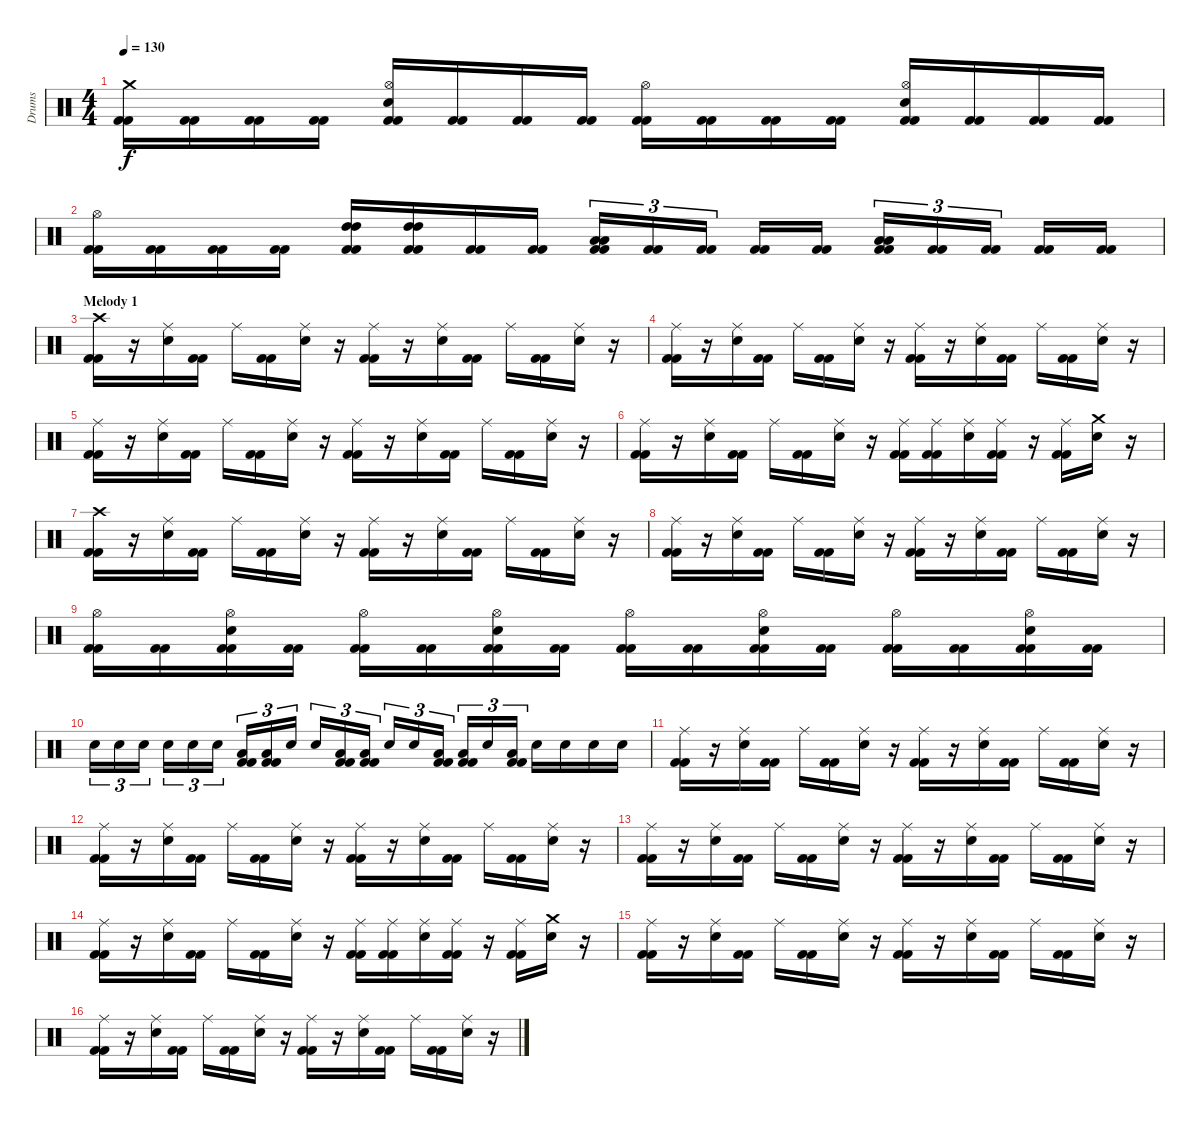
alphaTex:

\track ("Drums" "Drums") {instrument percussion}
\staff {score}
\articulation defaults
\ts (4 4)
\tempo 130
\clef neutral
\ks c
("Crash medium (hit)" "Kick (hit) 2" "Kick (hit) 2").16{dy f} ("Kick (hit) 2" "Kick (hit) 2").16 ("Kick (hit) 2" "Kick (hit) 2").16 ("Kick (hit) 2" "Kick (hit) 2").16 ("Hi-Hat (open)" "Electric Snare (hit)" "Kick (hit) 2" "Kick (hit) 2").16 ("Kick (hit) 2" "Kick (hit) 2").16 ("Kick (hit) 2" "Kick (hit) 2").16 ("Kick (hit) 2" "Kick (hit) 2").16 ("Hi-Hat (open)" "Kick (hit) 2" "Kick (hit) 2").16 ("Kick (hit) 2" "Kick (hit) 2").16 ("Kick (hit) 2" "Kick (hit) 2").16 ("Kick (hit) 2" "Kick (hit) 2").16 ("Hi-Hat (open)" "Electric Snare (hit)" "Kick (hit) 2" "Kick (hit) 2").16 ("Kick (hit) 2" "Kick (hit) 2").16 ("Kick (hit) 2" "Kick (hit) 2").16 ("Kick (hit) 2" "Kick (hit) 2").16 |
("Hi-Hat (open)" "Kick (hit) 2" "Kick (hit) 2").16 ("Kick (hit) 2" "Kick (hit) 2").16 ("Kick (hit) 2" "Kick (hit) 2").16 ("Kick (hit) 2" "Kick (hit) 2").16 ("High Tom (hit)" "High Tom (hit)" "Kick (hit) 2" "Kick (hit) 2").16 ("High Tom (hit)" "High Tom (hit)" "Kick (hit) 2" "Kick (hit) 2").16 ("Kick (hit) 2" "Kick (hit) 2").16 ("Kick (hit) 2" "Kick (hit) 2").16 ("Low Tom (hit)" "Low Tom (hit)" "Kick (hit) 2" "Kick (hit) 2").16{tu (3 2)} ("Kick (hit) 2" "Kick (hit) 2").16{tu (3 2)} ("Kick (hit) 2" "Kick (hit) 2").16{tu (3 2)} ("Kick (hit) 2" "Kick (hit) 2").16 ("Kick (hit) 2" "Kick (hit) 2").16 ("Low Floor Tom (hit)" "Low Floor Tom (hit)" "Kick (hit) 2" "Kick (hit) 2").16{tu (3 2)} ("Kick (hit) 2" "Kick (hit) 2").16{tu (3 2)} ("Kick (hit) 2" "Kick (hit) 2").16{tu (3 2)} ("Kick (hit) 2" "Kick (hit) 2").16 ("Kick (hit) 2" "Kick (hit) 2").16 |
\section ("" "Melody 1")
("Crash high (hit)" "Kick (hit) 2" "Kick (hit) 2").16 r.16 ("Ride (middle)" "Electric Snare (hit)").16 ("Kick (hit) 2" "Kick (hit) 2").16 "Ride (middle)".16 ("Kick (hit) 2" "Kick (hit) 2").16 ("Ride (middle)" "Electric Snare (hit)").16 r.16 ("Ride (middle)" "Kick (hit) 2" "Kick (hit) 2").16 r.16 ("Ride (middle)" "Electric Snare (hit)").16 ("Kick (hit) 2" "Kick (hit) 2").16 "Ride (middle)".16 ("Kick (hit) 2" "Kick (hit) 2").16 ("Ride (middle)" "Electric Snare (hit)").16 r.16 |
("Ride (middle)" "Kick (hit) 2" "Kick (hit) 2").16 r.16 ("Ride (middle)" "Electric Snare (hit)").16 ("Kick (hit) 2" "Kick (hit) 2").16 "Ride (middle)".16 ("Kick (hit) 2" "Kick (hit) 2").16 ("Ride (middle)" "Electric Snare (hit)").16 r.16 ("Ride (middle)" "Kick (hit) 2" "Kick (hit) 2").16 r.16 ("Ride (middle)" "Electric Snare (hit)").16 ("Kick (hit) 2" "Kick (hit) 2").16 "Ride (middle)".16 ("Kick (hit) 2" "Kick (hit) 2").16 ("Ride (middle)" "Electric Snare (hit)").16 r.16 |
("Ride (middle)" "Kick (hit) 2" "Kick (hit) 2").16 r.16 ("Ride (middle)" "Electric Snare (hit)").16 ("Kick (hit) 2" "Kick (hit) 2").16 "Ride (middle)".16 ("Kick (hit) 2" "Kick (hit) 2").16 ("Ride (middle)" "Electric Snare (hit)").16 r.16 ("Ride (middle)" "Kick (hit) 2" "Kick (hit) 2").16 r.16 ("Ride (middle)" "Electric Snare (hit)").16 ("Kick (hit) 2" "Kick (hit) 2").16 "Ride (middle)".16 ("Kick (hit) 2" "Kick (hit) 2").16 ("Ride (middle)" "Electric Snare (hit)").16 r.16 |
("Ride (middle)" "Kick (hit) 2" "Kick (hit) 2").16 r.16 ("Ride (middle)" "Electric Snare (hit)").16 ("Kick (hit) 2" "Kick (hit) 2").16 "Ride (middle)".16 ("Kick (hit) 2" "Kick (hit) 2").16 ("Ride (middle)" "Electric Snare (hit)").16 r.16 ("Ride (middle)" "Kick (hit) 2" "Kick (hit) 2").16 ("Ride (middle)" "Kick (hit) 2" "Kick (hit) 2").16 ("Ride (middle)" "Electric Snare (hit)").16 ("Ride (middle)" "Kick (hit) 2" "Kick (hit) 2").16 r.16 ("Ride (middle)" "Kick (hit) 2" "Kick (hit) 2").16 ("Crash medium (hit)" "Electric Snare (hit)").16 r.16 |
("Crash high (hit)" "Kick (hit) 2" "Kick (hit) 2").16 r.16 ("Ride (middle)" "Electric Snare (hit)").16 ("Kick (hit) 2" "Kick (hit) 2").16 "Ride (middle)".16 ("Kick (hit) 2" "Kick (hit) 2").16 ("Ride (middle)" "Electric Snare (hit)").16 r.16 ("Ride (middle)" "Kick (hit) 2" "Kick (hit) 2").16 r.16 ("Ride (middle)" "Electric Snare (hit)").16 ("Kick (hit) 2" "Kick (hit) 2").16 "Ride (middle)".16 ("Kick (hit) 2" "Kick (hit) 2").16 ("Ride (middle)" "Electric Snare (hit)").16 r.16 |
("Ride (middle)" "Kick (hit) 2" "Kick (hit) 2").16 r.16 ("Ride (middle)" "Electric Snare (hit)").16 ("Kick (hit) 2" "Kick (hit) 2").16 "Ride (middle)".16 ("Kick (hit) 2" "Kick (hit) 2").16 ("Ride (middle)" "Electric Snare (hit)").16 r.16 ("Ride (middle)" "Kick (hit) 2" "Kick (hit) 2").16 r.16 ("Ride (middle)" "Electric Snare (hit)").16 ("Kick (hit) 2" "Kick (hit) 2").16 "Ride (middle)".16 ("Kick (hit) 2" "Kick (hit) 2").16 ("Ride (middle)" "Electric Snare (hit)").16 r.16 |
("Hi-Hat (open)" "Kick (hit) 2" "Kick (hit) 2").16 ("Kick (hit) 2" "Kick (hit) 2").16 ("Hi-Hat (open)" "Electric Snare (hit)" "Kick (hit) 2" "Kick (hit) 2").16 ("Kick (hit) 2" "Kick (hit) 2").16 ("Hi-Hat (open)" "Kick (hit) 2" "Kick (hit) 2").16 ("Kick (hit) 2" "Kick (hit) 2").16 ("Hi-Hat (open)" "Electric Snare (hit)" "Kick (hit) 2" "Kick (hit) 2").16 ("Kick (hit) 2" "Kick (hit) 2").16 ("Hi-Hat (open)" "Kick (hit) 2" "Kick (hit) 2").16 ("Kick (hit) 2" "Kick (hit) 2").16 ("Hi-Hat (open)" "Electric Snare (hit)" "Kick (hit) 2" "Kick (hit) 2").16 ("Kick (hit) 2" "Kick (hit) 2").16 ("Hi-Hat (open)" "Kick (hit) 2" "Kick (hit) 2").16 ("Kick (hit) 2" "Kick (hit) 2").16 ("Hi-Hat (open)" "Electric Snare (hit)" "Kick (hit) 2" "Kick (hit) 2").16 ("Kick (hit) 2" "Kick (hit) 2").16 |
"Electric Snare (hit)".16{tu (3 2)} "Electric Snare (hit)".16{tu (3 2)} "Electric Snare (hit)".16{tu (3 2)} "Electric Snare (hit)".16{tu (3 2)} "Electric Snare (hit)".16{tu (3 2)} "Electric Snare (hit)".16{tu (3 2)} ("Low Tom (hit)" "Kick (hit) 2" "Kick (hit) 2").16{tu (3 2)} ("Low Tom (hit)" "Kick (hit) 2" "Kick (hit) 2").16{tu (3 2)} "Electric Snare (hit)".16{tu (3 2)} "Electric Snare (hit)".16{tu (3 2)} ("Low Tom (hit)" "Kick (hit) 2" "Kick (hit) 2").16{tu (3 2)} ("Low Tom (hit)" "Kick (hit) 2" "Kick (hit) 2").16{tu (3 2)} "Electric Snare (hit)".16{tu (3 2)} "Electric Snare (hit)".16{tu (3 2)} ("Low Tom (hit)" "Kick (hit) 2" "Kick (hit) 2").16{tu (3 2)} ("Low Tom (hit)" "Kick (hit) 2" "Kick (hit) 2").16{tu (3 2)} "Electric Snare (hit)".16{tu (3 2)} ("Low Tom (hit)" "Kick (hit) 2" "Kick (hit) 2").16{tu (3 2)} "Electric Snare (hit)".16 "Electric Snare (hit)".16 "Electric Snare (hit)".16 "Electric Snare (hit)".16 |
("Ride (middle)" "Kick (hit) 2" "Kick (hit) 2").16 r.16 ("Ride (middle)" "Electric Snare (hit)").16 ("Kick (hit) 2" "Kick (hit) 2").16 "Ride (middle)".16 ("Kick (hit) 2" "Kick (hit) 2").16 ("Ride (middle)" "Electric Snare (hit)").16 r.16 ("Ride (middle)" "Kick (hit) 2" "Kick (hit) 2").16 r.16 ("Ride (middle)" "Electric Snare (hit)").16 ("Kick (hit) 2" "Kick (hit) 2").16 "Ride (middle)".16 ("Kick (hit) 2" "Kick (hit) 2").16 ("Ride (middle)" "Electric Snare (hit)").16 r.16 |
("Ride (middle)" "Kick (hit) 2" "Kick (hit) 2").16 r.16 ("Ride (middle)" "Electric Snare (hit)").16 ("Kick (hit) 2" "Kick (hit) 2").16 "Ride (middle)".16 ("Kick (hit) 2" "Kick (hit) 2").16 ("Ride (middle)" "Electric Snare (hit)").16 r.16 ("Ride (middle)" "Kick (hit) 2" "Kick (hit) 2").16 r.16 ("Ride (middle)" "Electric Snare (hit)").16 ("Kick (hit) 2" "Kick (hit) 2").16 "Ride (middle)".16 ("Kick (hit) 2" "Kick (hit) 2").16 ("Ride (middle)" "Electric Snare (hit)").16 r.16 |
("Ride (middle)" "Kick (hit) 2" "Kick (hit) 2").16 r.16 ("Ride (middle)" "Electric Snare (hit)").16 ("Kick (hit) 2" "Kick (hit) 2").16 "Ride (middle)".16 ("Kick (hit) 2" "Kick (hit) 2").16 ("Ride (middle)" "Electric Snare (hit)").16 r.16 ("Ride (middle)" "Kick (hit) 2" "Kick (hit) 2").16 r.16 ("Ride (middle)" "Electric Snare (hit)").16 ("Kick (hit) 2" "Kick (hit) 2").16 "Ride (middle)".16 ("Kick (hit) 2" "Kick (hit) 2").16 ("Ride (middle)" "Electric Snare (hit)").16 r.16 |
("Ride (middle)" "Kick (hit) 2" "Kick (hit) 2").16 r.16 ("Ride (middle)" "Electric Snare (hit)").16 ("Kick (hit) 2" "Kick (hit) 2").16 "Ride (middle)".16 ("Kick (hit) 2" "Kick (hit) 2").16 ("Ride (middle)" "Electric Snare (hit)").16 r.16 ("Ride (middle)" "Kick (hit) 2" "Kick (hit) 2").16 ("Ride (middle)" "Kick (hit) 2" "Kick (hit) 2").16 ("Ride (middle)" "Electric Snare (hit)").16 ("Ride (middle)" "Kick (hit) 2" "Kick (hit) 2").16 r.16 ("Ride (middle)" "Kick (hit) 2" "Kick (hit) 2").16 ("Crash medium (hit)" "Electric Snare (hit)").16 r.16 |
("Ride (middle)" "Kick (hit) 2" "Kick (hit) 2").16 r.16 ("Ride (middle)" "Electric Snare (hit)").16 ("Kick (hit) 2" "Kick (hit) 2").16 "Ride (middle)".16 ("Kick (hit) 2" "Kick (hit) 2").16 ("Ride (middle)" "Electric Snare (hit)").16 r.16 ("Ride (middle)" "Kick (hit) 2" "Kick (hit) 2").16 r.16 ("Ride (middle)" "Electric Snare (hit)").16 ("Kick (hit) 2" "Kick (hit) 2").16 "Ride (middle)".16 ("Kick (hit) 2" "Kick (hit) 2").16 ("Ride (middle)" "Electric Snare (hit)").16 r.16 |
("Ride (middle)" "Kick (hit) 2" "Kick (hit) 2").16 r.16 ("Ride (middle)" "Electric Snare (hit)").16 ("Kick (hit) 2" "Kick (hit) 2").16 "Ride (middle)".16 ("Kick (hit) 2" "Kick (hit) 2").16 ("Ride (middle)" "Electric Snare (hit)").16 r.16 ("Ride (middle)" "Kick (hit) 2" "Kick (hit) 2").16 r.16 ("Ride (middle)" "Electric Snare (hit)").16 ("Kick (hit) 2" "Kick (hit) 2").16 "Ride (middle)".16 ("Kick (hit) 2" "Kick (hit) 2").16 ("Ride (middle)" "Electric Snare (hit)").16 r.16
